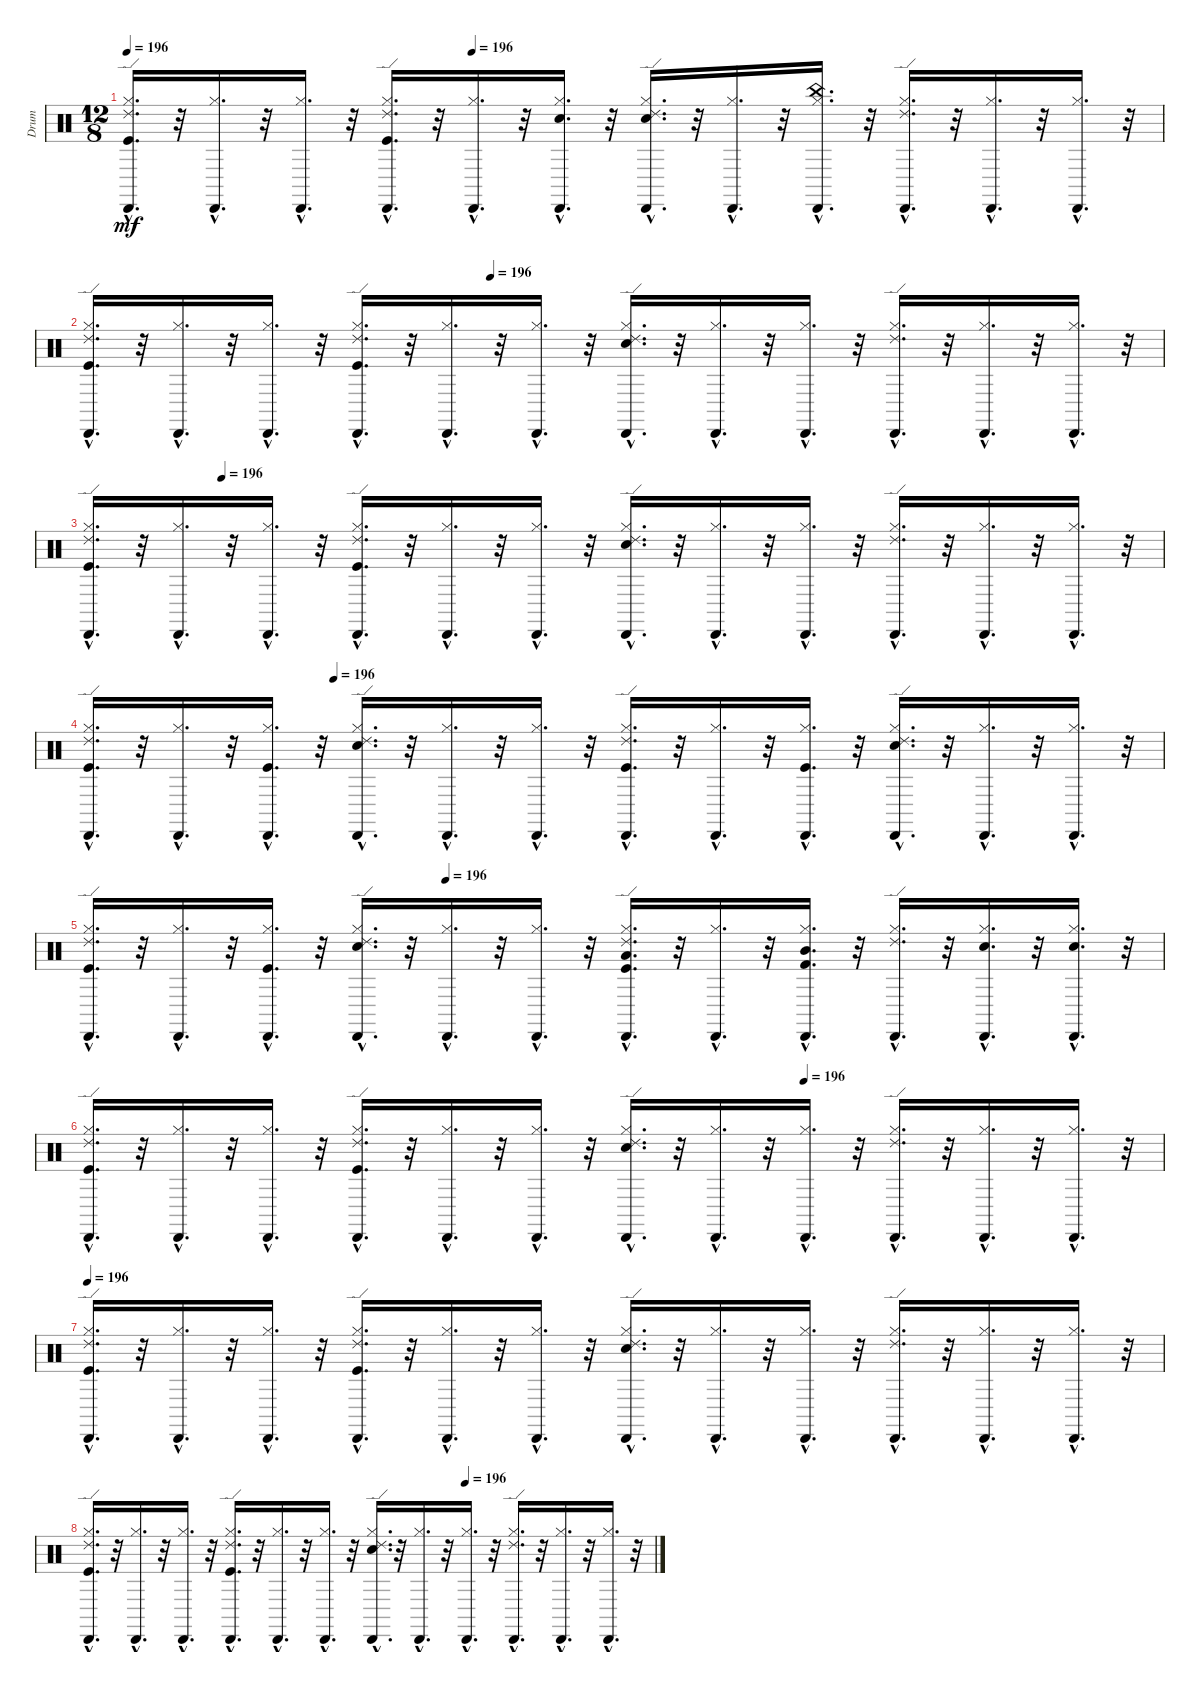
\track ("Drum" "Drum") {instrument percussion}
\staff {score}
\articulation defaults
\ts (12 8)
\tempo 196
\tempo (196 0.3333333333333333)
\clef neutral
\ks c
("Ride (edge) 2"{hac} "Cabasa (hit)"{hac} "Kick (hit)"{hac} "Hi-Hat (closed)"{hac}).16{d dy mf} r.32 ("Cabasa (hit)"{hac} "Hi-Hat (closed)"{hac}).16{d} r.32 ("Cabasa (hit)"{hac} "Hi-Hat (closed)"{hac}).16{d} r.32 ("Ride (edge) 2"{hac} "Cabasa (hit)"{hac} "Kick (hit)"{hac} "Hi-Hat (closed)"{hac}).16{d} r.32 ("Cabasa (hit)"{hac} "Hi-Hat (closed)"{hac}).16{d} r.32 ("Cabasa (hit)"{hac} "Hi-Hat (closed)"{hac} "Snare (hit) 2"{hac}).16{d} r.32 ("Ride (edge) 2"{hac} "Cabasa (hit)"{hac} "Snare (hit) 2"{hac} "Hi-Hat (closed)"{hac}).16{d} r.32 ("Cabasa (hit)"{hac} "Hi-Hat (closed)"{hac}).16{d} r.32 ("Cabasa (hit)"{hac} "Hi-Hat (closed)"{hac} "China (hit)"{hac}).16{d} r.32 ("Ride (edge) 2"{hac} "Cabasa (hit)"{hac} "Hi-Hat (closed)"{hac}).16{d} r.32 ("Cabasa (hit)"{hac} "Hi-Hat (closed)"{hac}).16{d} r.32 ("Cabasa (hit)"{hac} "Hi-Hat (closed)"{hac}).16{d} r.32 |
\tempo (196 0.375)
("Ride (edge) 2"{hac} "Cabasa (hit)"{hac} "Kick (hit)"{hac} "Hi-Hat (closed)"{hac}).16{d} r.32 ("Cabasa (hit)"{hac} "Hi-Hat (closed)"{hac}).16{d} r.32 ("Cabasa (hit)"{hac} "Hi-Hat (closed)"{hac}).16{d} r.32 ("Ride (edge) 2"{hac} "Cabasa (hit)"{hac} "Kick (hit)"{hac} "Hi-Hat (closed)"{hac}).16{d} r.32 ("Cabasa (hit)"{hac} "Hi-Hat (closed)"{hac}).16{d} r.32 ("Cabasa (hit)"{hac} "Hi-Hat (closed)"{hac}).16{d} r.32 ("Ride (edge) 2"{hac} "Cabasa (hit)"{hac} "Snare (hit) 2"{hac} "Hi-Hat (closed)"{hac}).16{d} r.32 ("Cabasa (hit)"{hac} "Hi-Hat (closed)"{hac}).16{d} r.32 ("Cabasa (hit)"{hac} "Hi-Hat (closed)"{hac}).16{d} r.32 ("Ride (edge) 2"{hac} "Cabasa (hit)"{hac} "Hi-Hat (closed)"{hac}).16{d} r.32 ("Cabasa (hit)"{hac} "Hi-Hat (closed)"{hac}).16{d} r.32 ("Cabasa (hit)"{hac} "Hi-Hat (closed)"{hac}).16{d} r.32 |
\tempo (196 0.125)
("Hi-Hat (closed)"{hac} "Kick (hit)"{hac} "Cabasa (hit)"{hac} "Ride (edge) 2"{hac}).16{d} r.32 ("Hi-Hat (closed)"{hac} "Cabasa (hit)"{hac}).16{d} r.32 ("Hi-Hat (closed)"{hac} "Cabasa (hit)"{hac}).16{d} r.32 ("Hi-Hat (closed)"{hac} "Kick (hit)"{hac} "Cabasa (hit)"{hac} "Ride (edge) 2"{hac}).16{d} r.32 ("Hi-Hat (closed)"{hac} "Cabasa (hit)"{hac}).16{d} r.32 ("Hi-Hat (closed)"{hac} "Cabasa (hit)"{hac}).16{d} r.32 ("Hi-Hat (closed)"{hac} "Snare (hit) 2"{hac} "Cabasa (hit)"{hac} "Ride (edge) 2"{hac}).16{d} r.32 ("Hi-Hat (closed)"{hac} "Cabasa (hit)"{hac}).16{d} r.32 ("Hi-Hat (closed)"{hac} "Cabasa (hit)"{hac}).16{d} r.32 ("Hi-Hat (closed)"{hac} "Cabasa (hit)"{hac} "Ride (edge) 2"{hac}).16{d} r.32 ("Hi-Hat (closed)"{hac} "Cabasa (hit)"{hac}).16{d} r.32 ("Hi-Hat (closed)"{hac} "Cabasa (hit)"{hac}).16{d} r.32 |
\tempo (196 0.22916666666666666)
("Cabasa (hit)"{hac} "Kick (hit)"{hac} "Ride (edge) 2"{hac} "Hi-Hat (closed)"{hac}).16{d} r.32 ("Hi-Hat (closed)"{hac} "Cabasa (hit)"{hac}).16{d} r.32 ("Kick (hit)"{hac} "Cabasa (hit)"{hac} "Hi-Hat (closed)"{hac}).16{d} r.32 ("Ride (edge) 2"{hac} "Cabasa (hit)"{hac} "Snare (hit) 2"{hac} "Hi-Hat (closed)"{hac}).16{d} r.32 ("Hi-Hat (closed)"{hac} "Cabasa (hit)"{hac}).16{d} r.32 ("Cabasa (hit)"{hac} "Hi-Hat (closed)"{hac}).16{d} r.32 ("Ride (edge) 2"{hac} "Cabasa (hit)"{hac} "Kick (hit)"{hac} "Hi-Hat (closed)"{hac}).16{d} r.32 ("Cabasa (hit)"{hac} "Hi-Hat (closed)"{hac}).16{d} r.32 ("Kick (hit)"{hac} "Cabasa (hit)"{hac} "Hi-Hat (closed)"{hac}).16{d} r.32 ("Ride (edge) 2"{hac} "Cabasa (hit)"{hac} "Hi-Hat (closed)"{hac} "Snare (hit) 2"{hac}).16{d} r.32 ("Cabasa (hit)"{hac} "Hi-Hat (closed)"{hac}).16{d} r.32 ("Cabasa (hit)"{hac} "Hi-Hat (closed)"{hac}).16{d} r.32 |
\tempo (196 0.3333333333333333)
("Hi-Hat (closed)"{hac} "Cabasa (hit)"{hac} "Kick (hit)"{hac} "Ride (edge) 2"{hac}).16{d} r.32 ("Cabasa (hit)"{hac} "Hi-Hat (closed)"{hac}).16{d} r.32 ("Kick (hit)"{hac} "Hi-Hat (closed)"{hac} "Cabasa (hit)"{hac}).16{d} r.32 ("Hi-Hat (closed)"{hac} "Cabasa (hit)"{hac} "Snare (hit) 2"{hac} "Ride (edge) 2"{hac}).16{d} r.32 ("Cabasa (hit)"{hac} "Hi-Hat (closed)"{hac}).16{d} r.32 ("Cabasa (hit)"{hac} "Hi-Hat (closed)"{hac}).16{d} r.32 ("Hi-Hat (closed)"{hac} "Kick (hit)"{hac} "Cabasa (hit)"{hac} "Low Tom (hit)"{hac} "Ride (edge) 2"{hac}).16{d} r.32 ("Hi-Hat (closed)"{hac} "Cabasa (hit)"{hac}).16{d} r.32 ("Kick (hit) 2"{hac} "Mid Tom (hit)"{hac} "Cabasa (hit)"{hac} "Hi-Hat (closed)"{hac}).16{d} r.32 ("Ride (edge) 2"{hac} "Hi-Hat (closed)"{hac} "Cabasa (hit)"{hac}).16{d} r.32 ("Snare (hit) 2"{hac} "Hi-Hat (closed)"{hac} "Cabasa (hit)"{hac}).16{d} r.32 ("Cabasa (hit)"{hac} "Hi-Hat (closed)"{hac} "Snare (hit) 2"{hac}).16{d} r.32 |
\tempo (196 0.6666666666666666)
("Kick (hit)"{hac} "Cabasa (hit)"{hac} "Hi-Hat (closed)"{hac} "Ride (edge) 2"{hac}).16{d} r.32 ("Cabasa (hit)"{hac} "Hi-Hat (closed)"{hac}).16{d} r.32 ("Cabasa (hit)"{hac} "Hi-Hat (closed)"{hac}).16{d} r.32 ("Hi-Hat (closed)"{hac} "Kick (hit)"{hac} "Ride (edge) 2"{hac} "Cabasa (hit)"{hac}).16{d} r.32 ("Cabasa (hit)"{hac} "Hi-Hat (closed)"{hac}).16{d} r.32 ("Hi-Hat (closed)"{hac} "Cabasa (hit)"{hac}).16{d} r.32 ("Ride (edge) 2"{hac} "Hi-Hat (closed)"{hac} "Cabasa (hit)"{hac} "Snare (hit) 2"{hac}).16{d} r.32 ("Hi-Hat (closed)"{hac} "Cabasa (hit)"{hac}).16{d} r.32 ("Hi-Hat (closed)"{hac} "Cabasa (hit)"{hac}).16{d} r.32 ("Ride (edge) 2"{hac} "Cabasa (hit)"{hac} "Hi-Hat (closed)"{hac}).16{d} r.32 ("Cabasa (hit)"{hac} "Hi-Hat (closed)"{hac}).16{d} r.32 ("Cabasa (hit)"{hac} "Hi-Hat (closed)"{hac}).16{d} r.32 |
\tempo 196
("Ride (edge) 2"{hac} "Cabasa (hit)"{hac} "Kick (hit)"{hac} "Hi-Hat (closed)"{hac}).16{d} r.32 ("Cabasa (hit)"{hac} "Hi-Hat (closed)"{hac}).16{d} r.32 ("Cabasa (hit)"{hac} "Hi-Hat (closed)"{hac}).16{d} r.32 ("Ride (edge) 2"{hac} "Cabasa (hit)"{hac} "Kick (hit)"{hac} "Hi-Hat (closed)"{hac}).16{d} r.32 ("Cabasa (hit)"{hac} "Hi-Hat (closed)"{hac}).16{d} r.32 ("Cabasa (hit)"{hac} "Hi-Hat (closed)"{hac}).16{d} r.32 ("Ride (edge) 2"{hac} "Cabasa (hit)"{hac} "Snare (hit) 2"{hac} "Hi-Hat (closed)"{hac}).16{d} r.32 ("Cabasa (hit)"{hac} "Hi-Hat (closed)"{hac}).16{d} r.32 ("Cabasa (hit)"{hac} "Hi-Hat (closed)"{hac}).16{d} r.32 ("Ride (edge) 2"{hac} "Cabasa (hit)"{hac} "Hi-Hat (closed)"{hac}).16{d} r.32 ("Cabasa (hit)"{hac} "Hi-Hat (closed)"{hac}).16{d} r.32 ("Cabasa (hit)"{hac} "Hi-Hat (closed)"{hac}).16{d} r.32 |
\tempo (196 0.6666666666666666)
("Ride (edge) 2"{hac} "Cabasa (hit)"{hac} "Kick (hit)"{hac} "Hi-Hat (closed)"{hac}).16{d} r.32 ("Cabasa (hit)"{hac} "Hi-Hat (closed)"{hac}).16{d} r.32 ("Cabasa (hit)"{hac} "Hi-Hat (closed)"{hac}).16{d} r.32 ("Kick (hit)"{hac} "Cabasa (hit)"{hac} "Hi-Hat (closed)"{hac} "Ride (edge) 2"{hac}).16{d} r.32 ("Cabasa (hit)"{hac} "Hi-Hat (closed)"{hac}).16{d} r.32 ("Hi-Hat (closed)"{hac} "Cabasa (hit)"{hac}).16{d} r.32 ("Hi-Hat (closed)"{hac} "Snare (hit) 2"{hac} "Cabasa (hit)"{hac} "Ride (edge) 2"{hac}).16{d} r.32 ("Cabasa (hit)"{hac} "Hi-Hat (closed)"{hac}).16{d} r.32 ("Cabasa (hit)"{hac} "Hi-Hat (closed)"{hac}).16{d} r.32 ("Ride (edge) 2"{hac} "Cabasa (hit)"{hac} "Hi-Hat (closed)"{hac}).16{d} r.32 ("Cabasa (hit)"{hac} "Hi-Hat (closed)"{hac}).16{d} r.32 ("Cabasa (hit)"{hac} "Hi-Hat (closed)"{hac}).16{d} r.32
